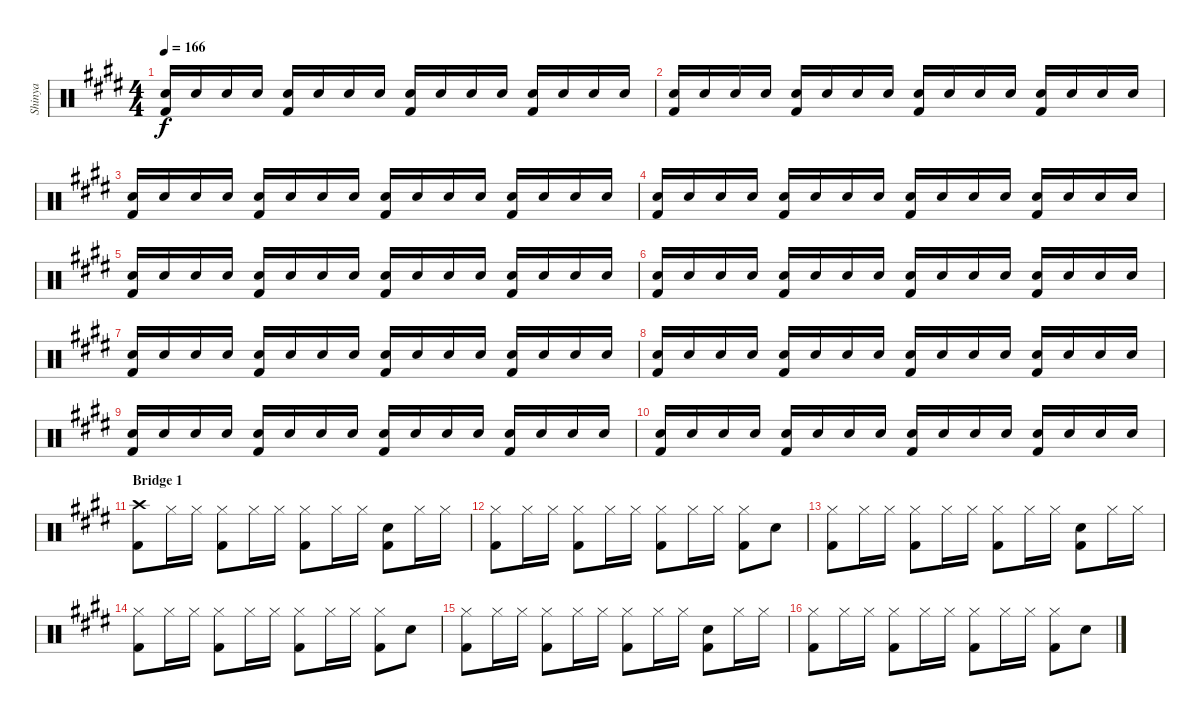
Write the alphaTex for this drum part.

\track ("Shinya" "Shinya") {instrument percussion}
\staff {score}
\articulation defaults
\ts (4 4)
\tempo 166
\clef neutral
\ks e
("Snare (hit) 2" "Kick (hit) 2").16{dy f} "Snare (hit) 2".16 "Snare (hit) 2".16 "Snare (hit) 2".16 ("Snare (hit) 2" "Kick (hit) 2").16 "Snare (hit) 2".16 "Snare (hit) 2".16 "Snare (hit) 2".16 ("Snare (hit) 2" "Kick (hit) 2").16 "Snare (hit) 2".16 "Snare (hit) 2".16 "Snare (hit) 2".16 ("Snare (hit) 2" "Kick (hit) 2").16 "Snare (hit) 2".16 "Snare (hit) 2".16 "Snare (hit) 2".16 |
("Snare (hit) 2" "Kick (hit) 2").16 "Snare (hit) 2".16 "Snare (hit) 2".16 "Snare (hit) 2".16 ("Snare (hit) 2" "Kick (hit) 2").16 "Snare (hit) 2".16 "Snare (hit) 2".16 "Snare (hit) 2".16 ("Snare (hit) 2" "Kick (hit) 2").16 "Snare (hit) 2".16 "Snare (hit) 2".16 "Snare (hit) 2".16 ("Snare (hit) 2" "Kick (hit) 2").16 "Snare (hit) 2".16 "Snare (hit) 2".16 "Snare (hit) 2".16 |
("Snare (hit) 2" "Kick (hit) 2").16 "Snare (hit) 2".16 "Snare (hit) 2".16 "Snare (hit) 2".16 ("Snare (hit) 2" "Kick (hit) 2").16 "Snare (hit) 2".16 "Snare (hit) 2".16 "Snare (hit) 2".16 ("Snare (hit) 2" "Kick (hit) 2").16 "Snare (hit) 2".16 "Snare (hit) 2".16 "Snare (hit) 2".16 ("Snare (hit) 2" "Kick (hit) 2").16 "Snare (hit) 2".16 "Snare (hit) 2".16 "Snare (hit) 2".16 |
("Snare (hit) 2" "Kick (hit) 2").16 "Snare (hit) 2".16 "Snare (hit) 2".16 "Snare (hit) 2".16 ("Snare (hit) 2" "Kick (hit) 2").16 "Snare (hit) 2".16 "Snare (hit) 2".16 "Snare (hit) 2".16 ("Snare (hit) 2" "Kick (hit) 2").16 "Snare (hit) 2".16 "Snare (hit) 2".16 "Snare (hit) 2".16 ("Snare (hit) 2" "Kick (hit) 2").16 "Snare (hit) 2".16 "Snare (hit) 2".16 "Snare (hit) 2".16 |
("Snare (hit) 2" "Kick (hit) 2").16 "Snare (hit) 2".16 "Snare (hit) 2".16 "Snare (hit) 2".16 ("Snare (hit) 2" "Kick (hit) 2").16 "Snare (hit) 2".16 "Snare (hit) 2".16 "Snare (hit) 2".16 ("Snare (hit) 2" "Kick (hit) 2").16 "Snare (hit) 2".16 "Snare (hit) 2".16 "Snare (hit) 2".16 ("Snare (hit) 2" "Kick (hit) 2").16 "Snare (hit) 2".16 "Snare (hit) 2".16 "Snare (hit) 2".16 |
("Snare (hit) 2" "Kick (hit) 2").16 "Snare (hit) 2".16 "Snare (hit) 2".16 "Snare (hit) 2".16 ("Snare (hit) 2" "Kick (hit) 2").16 "Snare (hit) 2".16 "Snare (hit) 2".16 "Snare (hit) 2".16 ("Snare (hit) 2" "Kick (hit) 2").16 "Snare (hit) 2".16 "Snare (hit) 2".16 "Snare (hit) 2".16 ("Snare (hit) 2" "Kick (hit) 2").16 "Snare (hit) 2".16 "Snare (hit) 2".16 "Snare (hit) 2".16 |
("Snare (hit) 2" "Kick (hit) 2").16 "Snare (hit) 2".16 "Snare (hit) 2".16 "Snare (hit) 2".16 ("Snare (hit) 2" "Kick (hit) 2").16 "Snare (hit) 2".16 "Snare (hit) 2".16 "Snare (hit) 2".16 ("Snare (hit) 2" "Kick (hit) 2").16 "Snare (hit) 2".16 "Snare (hit) 2".16 "Snare (hit) 2".16 ("Snare (hit) 2" "Kick (hit) 2").16 "Snare (hit) 2".16 "Snare (hit) 2".16 "Snare (hit) 2".16 |
("Snare (hit) 2" "Kick (hit) 2").16 "Snare (hit) 2".16 "Snare (hit) 2".16 "Snare (hit) 2".16 ("Snare (hit) 2" "Kick (hit) 2").16 "Snare (hit) 2".16 "Snare (hit) 2".16 "Snare (hit) 2".16 ("Snare (hit) 2" "Kick (hit) 2").16 "Snare (hit) 2".16 "Snare (hit) 2".16 "Snare (hit) 2".16 ("Snare (hit) 2" "Kick (hit) 2").16 "Snare (hit) 2".16 "Snare (hit) 2".16 "Snare (hit) 2".16 |
("Snare (hit) 2" "Kick (hit) 2").16 "Snare (hit) 2".16 "Snare (hit) 2".16 "Snare (hit) 2".16 ("Snare (hit) 2" "Kick (hit) 2").16 "Snare (hit) 2".16 "Snare (hit) 2".16 "Snare (hit) 2".16 ("Snare (hit) 2" "Kick (hit) 2").16 "Snare (hit) 2".16 "Snare (hit) 2".16 "Snare (hit) 2".16 ("Snare (hit) 2" "Kick (hit) 2").16 "Snare (hit) 2".16 "Snare (hit) 2".16 "Snare (hit) 2".16 |
("Snare (hit) 2" "Kick (hit) 2").16 "Snare (hit) 2".16 "Snare (hit) 2".16 "Snare (hit) 2".16 ("Snare (hit) 2" "Kick (hit) 2").16 "Snare (hit) 2".16 "Snare (hit) 2".16 "Snare (hit) 2".16 ("Snare (hit) 2" "Kick (hit) 2").16 "Snare (hit) 2".16 "Snare (hit) 2".16 "Snare (hit) 2".16 ("Snare (hit) 2" "Kick (hit) 2").16 "Snare (hit) 2".16 "Snare (hit) 2".16 "Snare (hit) 2".16 |
\section ("" "Bridge 1")
("Crash high (hit)" "Kick (hit) 2").8 "Hi-Hat (closed)".16 "Hi-Hat (closed)".16 ("Hi-Hat (closed)" "Kick (hit) 2").8 "Hi-Hat (closed)".16 "Hi-Hat (closed)".16 ("Hi-Hat (closed)" "Kick (hit) 2").8 "Hi-Hat (closed)".16 "Hi-Hat (closed)".16 ("Snare (hit) 2" "Kick (hit) 2").8 "Hi-Hat (closed)".16 "Hi-Hat (closed)".16 |
("Hi-Hat (closed)" "Kick (hit) 2").8 "Hi-Hat (closed)".16 "Hi-Hat (closed)".16 ("Hi-Hat (closed)" "Kick (hit) 2").8 "Hi-Hat (closed)".16 "Hi-Hat (closed)".16 ("Hi-Hat (closed)" "Kick (hit) 2").8 "Hi-Hat (closed)".16 "Hi-Hat (closed)".16 ("Hi-Hat (closed)" "Kick (hit) 2").8 "Snare (hit) 2".8 |
("Hi-Hat (closed)" "Kick (hit) 2").8 "Hi-Hat (closed)".16 "Hi-Hat (closed)".16 ("Hi-Hat (closed)" "Kick (hit) 2").8 "Hi-Hat (closed)".16 "Hi-Hat (closed)".16 ("Hi-Hat (closed)" "Kick (hit) 2").8 "Hi-Hat (closed)".16 "Hi-Hat (closed)".16 ("Snare (hit) 2" "Kick (hit) 2").8 "Hi-Hat (closed)".16 "Hi-Hat (closed)".16 |
("Hi-Hat (closed)" "Kick (hit) 2").8 "Hi-Hat (closed)".16 "Hi-Hat (closed)".16 ("Hi-Hat (closed)" "Kick (hit) 2").8 "Hi-Hat (closed)".16 "Hi-Hat (closed)".16 ("Hi-Hat (closed)" "Kick (hit) 2").8 "Hi-Hat (closed)".16 "Hi-Hat (closed)".16 ("Hi-Hat (closed)" "Kick (hit) 2").8 "Snare (hit) 2".8 |
("Hi-Hat (closed)" "Kick (hit) 2").8 "Hi-Hat (closed)".16 "Hi-Hat (closed)".16 ("Hi-Hat (closed)" "Kick (hit) 2").8 "Hi-Hat (closed)".16 "Hi-Hat (closed)".16 ("Hi-Hat (closed)" "Kick (hit) 2").8 "Hi-Hat (closed)".16 "Hi-Hat (closed)".16 ("Snare (hit) 2" "Kick (hit) 2").8 "Hi-Hat (closed)".16 "Hi-Hat (closed)".16 |
("Hi-Hat (closed)" "Kick (hit) 2").8 "Hi-Hat (closed)".16 "Hi-Hat (closed)".16 ("Hi-Hat (closed)" "Kick (hit) 2").8 "Hi-Hat (closed)".16 "Hi-Hat (closed)".16 ("Hi-Hat (closed)" "Kick (hit) 2").8 "Hi-Hat (closed)".16 "Hi-Hat (closed)".16 ("Hi-Hat (closed)" "Kick (hit) 2").8 "Snare (hit) 2".8
